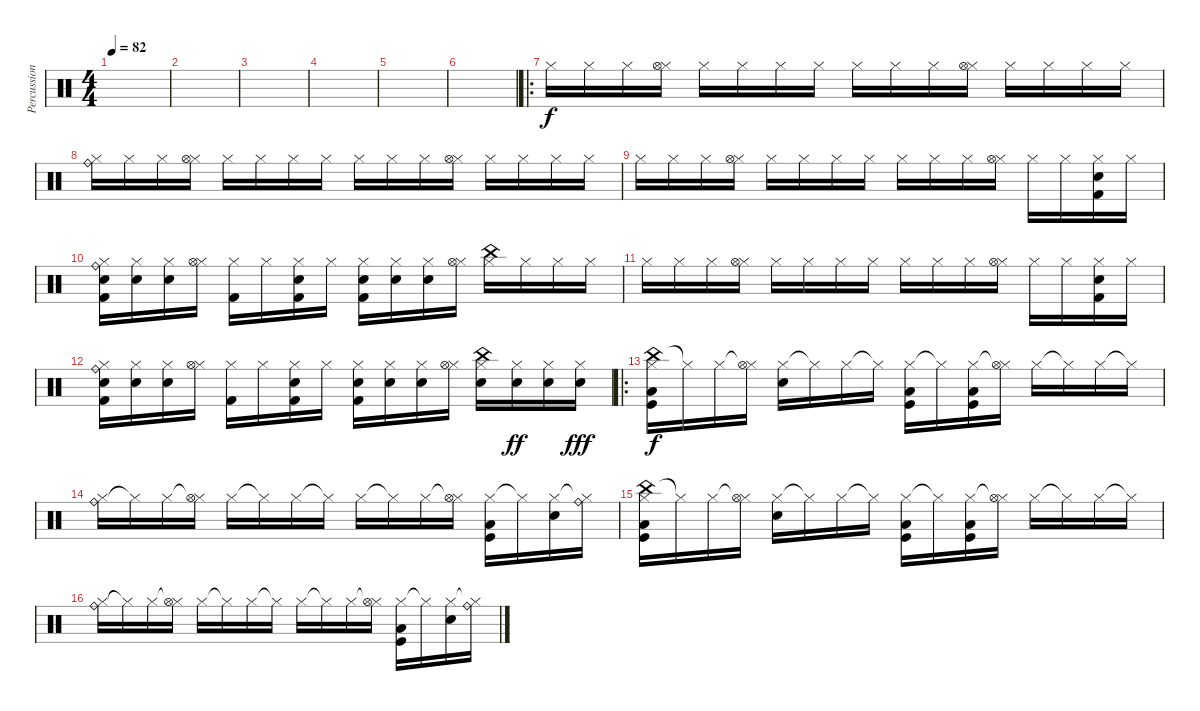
\track ("Percussions" "Percussion") {instrument percussion}
\staff {score}
\articulation defaults
\ts (4 4)
\tempo 82
\clef neutral
\ks c
|
|
|
|
|
|
\ro "Hi-Hat (closed)".16 "Hi-Hat (closed)".16 "Hi-Hat (closed)".16
("Hi-Hat (closed)" "Hi-Hat (open)").16 "Hi-Hat (closed)".16 "Hi-Hat (closed)".16 "Hi-Hat (closed)".16 "Hi-Hat (closed)".16 "Hi-Hat (closed)".16 "Hi-Hat (closed)".16 "Hi-Hat (closed)".16 ("Hi-Hat (closed)" "Hi-Hat (open)").16 "Hi-Hat (closed)".16 "Hi-Hat (closed)".16 "Hi-Hat (closed)".16 "Hi-Hat (closed)".16 |
("Ride (bell)" "Hi-Hat (closed)").16 "Hi-Hat (closed)".16 "Hi-Hat (closed)".16 ("Hi-Hat (closed)" "Hi-Hat (open)").16 "Hi-Hat (closed)".16 "Hi-Hat (closed)".16 "Hi-Hat (closed)".16 "Hi-Hat (closed)".16 "Hi-Hat (closed)".16 "Hi-Hat (closed)".16 "Hi-Hat (closed)".16 ("Hi-Hat (closed)" "Hi-Hat (open)").16 "Hi-Hat (closed)".16 "Hi-Hat (closed)".16 "Hi-Hat (closed)".16 "Hi-Hat (closed)".16 |
"Hi-Hat (closed)".16 "Hi-Hat (closed)".16 "Hi-Hat (closed)".16 ("Hi-Hat (closed)" "Hi-Hat (open)").16 "Hi-Hat (closed)".16 "Hi-Hat (closed)".16 "Hi-Hat (closed)".16 "Hi-Hat (closed)".16 "Hi-Hat (closed)".16 "Hi-Hat (closed)".16 "Hi-Hat (closed)".16 ("Hi-Hat (closed)" "Hi-Hat (open)").16 "Hi-Hat (closed)".16 "Hi-Hat (closed)".16 ("Hi-Hat (closed)" "Electric Snare (hit)" "Kick (hit) 2").16 "Hi-Hat (closed)".16 |
("Ride (bell)" "Hi-Hat (closed)" "Electric Snare (hit)" "Kick (hit) 2").16 ("Hi-Hat (closed)" "Electric Snare (hit)").16 ("Hi-Hat (closed)" "Electric Snare (hit)").16 ("Hi-Hat (closed)" "Hi-Hat (open)").16 ("Hi-Hat (closed)" "Kick (hit) 2").16 "Hi-Hat (closed)".16 ("Hi-Hat (closed)" "Electric Snare (hit)" "Kick (hit) 2").16 "Hi-Hat (closed)".16 ("Hi-Hat (closed)" "Electric Snare (hit)" "Kick (hit) 2").16 ("Hi-Hat (closed)" "Electric Snare (hit)").16 ("Hi-Hat (closed)" "Electric Snare (hit)").16 ("Hi-Hat (closed)" "Hi-Hat (open)").16 ("Hi-Hat (closed)" "China (hit)").16 "Hi-Hat (closed)".16 "Hi-Hat (closed)".16 "Hi-Hat (closed)".16 |
"Hi-Hat (closed)".16 "Hi-Hat (closed)".16 "Hi-Hat (closed)".16 ("Hi-Hat (closed)" "Hi-Hat (open)").16 "Hi-Hat (closed)".16 "Hi-Hat (closed)".16 "Hi-Hat (closed)".16 "Hi-Hat (closed)".16 "Hi-Hat (closed)".16 "Hi-Hat (closed)".16 "Hi-Hat (closed)".16 ("Hi-Hat (closed)" "Hi-Hat (open)").16 "Hi-Hat (closed)".16 "Hi-Hat (closed)".16 ("Hi-Hat (closed)" "Electric Snare (hit)" "Kick (hit) 2").16 "Hi-Hat (closed)".16 |
("Ride (bell)" "Hi-Hat (closed)" "Electric Snare (hit)" "Kick (hit) 2").16 ("Hi-Hat (closed)" "Electric Snare (hit)").16 ("Hi-Hat (closed)" "Electric Snare (hit)").16 ("Hi-Hat (closed)" "Hi-Hat (open)").16 ("Hi-Hat (closed)" "Kick (hit) 2").16 "Hi-Hat (closed)".16 ("Hi-Hat (closed)" "Electric Snare (hit)" "Kick (hit) 2").16 "Hi-Hat (closed)".16 ("Hi-Hat (closed)" "Electric Snare (hit)" "Kick (hit) 2").16 ("Hi-Hat (closed)" "Electric Snare (hit)").16 ("Hi-Hat (closed)" "Electric Snare (hit)").16 ("Hi-Hat (closed)" "Hi-Hat (open)").16 ("Hi-Hat (closed)" "China (hit)" "Electric Snare (hit)").16 ("Hi-Hat (closed)" "Electric Snare (hit)").16{dy ff} ("Hi-Hat (closed)" "Electric Snare (hit)").16 ("Hi-Hat (closed)" "Electric Snare (hit)").16{dy fff} |
\ro
("China (hit)" "Hi-Hat (closed)" "Low Floor Tom (hit)" "Kick (hit)").16{dy f} "Hi-Hat (closed)"{t}.16 "Hi-Hat (closed)".16 ("Hi-Hat (closed)"{t} "Hi-Hat (open)").16 ("Hi-Hat (closed)" "Snare (hit) 2").16 "Hi-Hat (closed)"{t}.16 "Hi-Hat (closed)".16 "Hi-Hat (closed)"{t}.16 ("Hi-Hat (closed)" "Low Floor Tom (hit)" "Kick (hit)").16 "Hi-Hat (closed)"{t}.16 ("Hi-Hat (closed)" "Low Floor Tom (hit)" "Kick (hit)").16 ("Hi-Hat (closed)"{t} "Hi-Hat (open)").16 "Hi-Hat (closed)".16 "Hi-Hat (closed)"{t}.16 "Hi-Hat (closed)".16 "Hi-Hat (closed)"{t}.16 |
("Ride (bell)" "Hi-Hat (closed)").16 "Hi-Hat (closed)"{t}.16 "Hi-Hat (closed)".16 ("Hi-Hat (closed)"{t} "Hi-Hat (open)").16 "Hi-Hat (closed)".16 "Hi-Hat (closed)"{t}.16 "Hi-Hat (closed)".16 "Hi-Hat (closed)"{t}.16 "Hi-Hat (closed)".16 "Hi-Hat (closed)"{t}.16 "Hi-Hat (closed)".16 ("Hi-Hat (closed)"{t} "Hi-Hat (open)").16 ("Hi-Hat (closed)" "Low Floor Tom (hit)" "Kick (hit)").16 "Hi-Hat (closed)"{t}.16 ("Hi-Hat (closed)" "Snare (hit) 2").16 ("Hi-Hat (closed)"{t} "Ride (bell)").16 |
("China (hit)" "Hi-Hat (closed)" "Low Floor Tom (hit)" "Kick (hit)").16 "Hi-Hat (closed)"{t}.16 "Hi-Hat (closed)".16 ("Hi-Hat (closed)"{t} "Hi-Hat (open)").16 ("Hi-Hat (closed)" "Snare (hit) 2").16 "Hi-Hat (closed)"{t}.16 "Hi-Hat (closed)".16 "Hi-Hat (closed)"{t}.16 ("Hi-Hat (closed)" "Low Floor Tom (hit)" "Kick (hit)").16 "Hi-Hat (closed)"{t}.16 ("Hi-Hat (closed)" "Low Floor Tom (hit)" "Kick (hit)").16 ("Hi-Hat (closed)"{t} "Hi-Hat (open)").16 "Hi-Hat (closed)".16 "Hi-Hat (closed)"{t}.16 "Hi-Hat (closed)".16 "Hi-Hat (closed)"{t}.16 |
("Ride (bell)" "Hi-Hat (closed)").16 "Hi-Hat (closed)"{t}.16 "Hi-Hat (closed)".16 ("Hi-Hat (closed)"{t} "Hi-Hat (open)").16 "Hi-Hat (closed)".16 "Hi-Hat (closed)"{t}.16 "Hi-Hat (closed)".16 "Hi-Hat (closed)"{t}.16 "Hi-Hat (closed)".16 "Hi-Hat (closed)"{t}.16 "Hi-Hat (closed)".16 ("Hi-Hat (closed)"{t} "Hi-Hat (open)").16 ("Hi-Hat (closed)" "Low Floor Tom (hit)" "Kick (hit)").16 "Hi-Hat (closed)"{t}.16 ("Hi-Hat (closed)" "Snare (hit) 2").16 ("Hi-Hat (closed)"{t} "Ride (bell)").16
